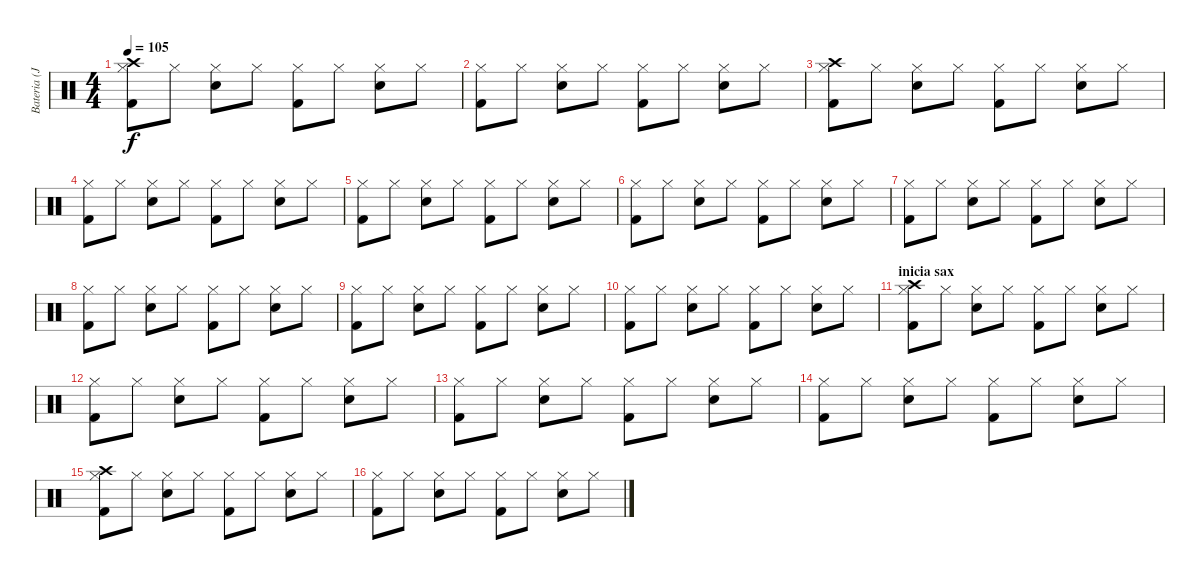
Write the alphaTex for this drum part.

\track ("Bateria (Javi Molina)" "Bateria (J") {instrument percussion}
\staff {score}
\articulation defaults
\ts (4 4)
\tempo 105
\clef neutral
\ks c
("Hi-Hat (closed)" "Crash high (hit)" "Kick (hit) 2").8{dy f} "Hi-Hat (closed)".8 ("Hi-Hat (closed)" "Snare (hit) 2").8 "Hi-Hat (closed)".8 ("Hi-Hat (closed)" "Kick (hit) 2").8 "Hi-Hat (closed)".8 ("Hi-Hat (closed)" "Snare (hit) 2").8 "Hi-Hat (closed)".8 |
("Hi-Hat (closed)" "Kick (hit) 2").8 "Hi-Hat (closed)".8 ("Hi-Hat (closed)" "Snare (hit) 2").8 "Hi-Hat (closed)".8 ("Hi-Hat (closed)" "Kick (hit) 2").8 "Hi-Hat (closed)".8 ("Hi-Hat (closed)" "Snare (hit) 2").8 "Hi-Hat (closed)".8 |
("Hi-Hat (closed)" "Crash high (hit)" "Kick (hit) 2").8 "Hi-Hat (closed)".8 ("Hi-Hat (closed)" "Snare (hit) 2").8 "Hi-Hat (closed)".8 ("Hi-Hat (closed)" "Kick (hit) 2").8 "Hi-Hat (closed)".8 ("Hi-Hat (closed)" "Snare (hit) 2").8 "Hi-Hat (closed)".8 |
("Hi-Hat (closed)" "Kick (hit) 2").8 "Hi-Hat (closed)".8 ("Hi-Hat (closed)" "Snare (hit) 2").8 "Hi-Hat (closed)".8 ("Hi-Hat (closed)" "Kick (hit) 2").8 "Hi-Hat (closed)".8 ("Hi-Hat (closed)" "Snare (hit) 2").8 "Hi-Hat (closed)".8 |
("Hi-Hat (closed)" "Kick (hit) 2").8 "Hi-Hat (closed)".8 ("Hi-Hat (closed)" "Snare (hit) 2").8 "Hi-Hat (closed)".8 ("Hi-Hat (closed)" "Kick (hit) 2").8 "Hi-Hat (closed)".8 ("Hi-Hat (closed)" "Snare (hit) 2").8 "Hi-Hat (closed)".8 |
("Hi-Hat (closed)" "Kick (hit) 2").8 "Hi-Hat (closed)".8 ("Hi-Hat (closed)" "Snare (hit) 2").8 "Hi-Hat (closed)".8 ("Hi-Hat (closed)" "Kick (hit) 2").8 "Hi-Hat (closed)".8 ("Hi-Hat (closed)" "Snare (hit) 2").8 "Hi-Hat (closed)".8 |
("Hi-Hat (closed)" "Kick (hit) 2").8 "Hi-Hat (closed)".8 ("Hi-Hat (closed)" "Snare (hit) 2").8 "Hi-Hat (closed)".8 ("Hi-Hat (closed)" "Kick (hit) 2").8 "Hi-Hat (closed)".8 ("Hi-Hat (closed)" "Snare (hit) 2").8 "Hi-Hat (closed)".8 |
("Hi-Hat (closed)" "Kick (hit) 2").8 "Hi-Hat (closed)".8 ("Hi-Hat (closed)" "Snare (hit) 2").8 "Hi-Hat (closed)".8 ("Hi-Hat (closed)" "Kick (hit) 2").8 "Hi-Hat (closed)".8 ("Hi-Hat (closed)" "Snare (hit) 2").8 "Hi-Hat (closed)".8 |
("Hi-Hat (closed)" "Kick (hit) 2").8 "Hi-Hat (closed)".8 ("Hi-Hat (closed)" "Snare (hit) 2").8 "Hi-Hat (closed)".8 ("Hi-Hat (closed)" "Kick (hit) 2").8 "Hi-Hat (closed)".8 ("Hi-Hat (closed)" "Snare (hit) 2").8 "Hi-Hat (closed)".8 |
("Hi-Hat (closed)" "Kick (hit) 2").8 "Hi-Hat (closed)".8 ("Hi-Hat (closed)" "Snare (hit) 2").8 "Hi-Hat (closed)".8 ("Hi-Hat (closed)" "Kick (hit) 2").8 "Hi-Hat (closed)".8 ("Hi-Hat (closed)" "Snare (hit) 2").8 "Hi-Hat (closed)".8 |
\section ("" "inicia sax")
("Hi-Hat (closed)" "Crash high (hit)" "Kick (hit) 2").8 "Hi-Hat (closed)".8 ("Hi-Hat (closed)" "Snare (hit) 2").8 "Hi-Hat (closed)".8 ("Hi-Hat (closed)" "Kick (hit) 2").8 "Hi-Hat (closed)".8 ("Hi-Hat (closed)" "Snare (hit) 2").8 "Hi-Hat (closed)".8 |
("Hi-Hat (closed)" "Kick (hit) 2").8 "Hi-Hat (closed)".8 ("Hi-Hat (closed)" "Snare (hit) 2").8 "Hi-Hat (closed)".8 ("Hi-Hat (closed)" "Kick (hit) 2").8 "Hi-Hat (closed)".8 ("Hi-Hat (closed)" "Snare (hit) 2").8 "Hi-Hat (closed)".8 |
("Hi-Hat (closed)" "Kick (hit) 2").8 "Hi-Hat (closed)".8 ("Hi-Hat (closed)" "Snare (hit) 2").8 "Hi-Hat (closed)".8 ("Hi-Hat (closed)" "Kick (hit) 2").8 "Hi-Hat (closed)".8 ("Hi-Hat (closed)" "Snare (hit) 2").8 "Hi-Hat (closed)".8 |
("Hi-Hat (closed)" "Kick (hit) 2").8 "Hi-Hat (closed)".8 ("Hi-Hat (closed)" "Snare (hit) 2").8 "Hi-Hat (closed)".8 ("Hi-Hat (closed)" "Kick (hit) 2").8 "Hi-Hat (closed)".8 ("Hi-Hat (closed)" "Snare (hit) 2").8 "Hi-Hat (closed)".8 |
("Hi-Hat (closed)" "Crash high (hit)" "Kick (hit) 2").8 "Hi-Hat (closed)".8 ("Hi-Hat (closed)" "Snare (hit) 2").8 "Hi-Hat (closed)".8 ("Hi-Hat (closed)" "Kick (hit) 2").8 "Hi-Hat (closed)".8 ("Hi-Hat (closed)" "Snare (hit) 2").8 "Hi-Hat (closed)".8 |
("Hi-Hat (closed)" "Kick (hit) 2").8 "Hi-Hat (closed)".8 ("Hi-Hat (closed)" "Snare (hit) 2").8 "Hi-Hat (closed)".8 ("Hi-Hat (closed)" "Kick (hit) 2").8 "Hi-Hat (closed)".8 ("Hi-Hat (closed)" "Snare (hit) 2").8 "Hi-Hat (closed)".8
